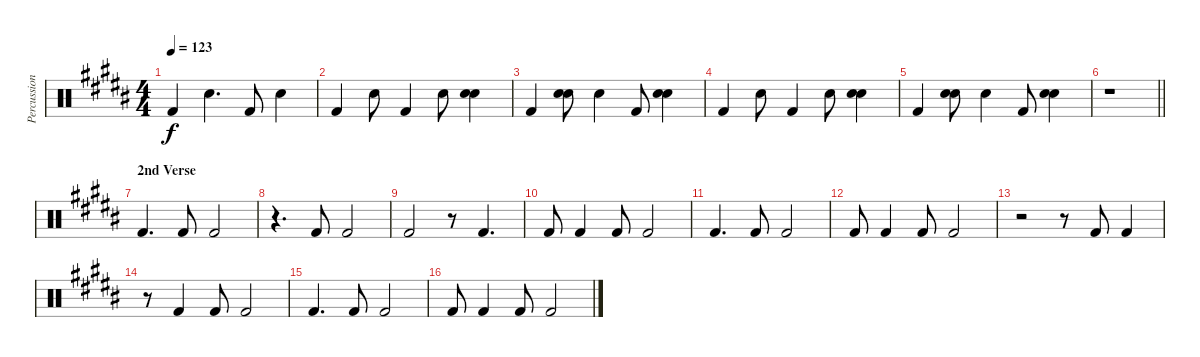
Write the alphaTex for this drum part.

\track ("Percussion" "Percussion") {instrument percussion}
\staff {score}
\articulation defaults
\ts (4 4)
\tempo 123
\clef neutral
\ks g#minor "Kick (hit) 2".4{dy f} "Snare (hit) 2".4{d} "Kick (hit) 2".8 "Snare (hit) 2".4
|
"Kick (hit) 2".4 "Snare (hit) 2".8 "Kick (hit) 2".4 "Hand Clap (hit)".8 ("Hand Clap (hit)" "Snare (hit) 2").4 |
"Kick (hit) 2".4 ("Hand Clap (hit)" "Snare (hit) 2").8 "Hand Clap (hit)".4 "Kick (hit) 2".8 ("Hand Clap (hit)" "Snare (hit) 2").4 |
"Kick (hit) 2".4 "Snare (hit) 2".8 "Kick (hit) 2".4 "Hand Clap (hit)".8 ("Hand Clap (hit)" "Snare (hit) 2").4 |
"Kick (hit) 2".4 ("Hand Clap (hit)" "Snare (hit) 2").8 "Hand Clap (hit)".4 "Kick (hit) 2".8 ("Hand Clap (hit)" "Snare (hit) 2").4 |
\barLineRight lightlight
r.1 |
\section ("" "2nd Verse")
"Kick (hit) 2".4{d} "Kick (hit) 2".8 "Kick (hit) 2".2 |
r.4{d} "Kick (hit) 2".8 "Kick (hit) 2".2 |
"Kick (hit) 2".2 r.8 "Kick (hit) 2".4{d} |
"Kick (hit) 2".8 "Kick (hit) 2".4 "Kick (hit) 2".8 "Kick (hit) 2".2 |
"Kick (hit) 2".4{d} "Kick (hit) 2".8 "Kick (hit) 2".2 |
"Kick (hit) 2".8 "Kick (hit) 2".4 "Kick (hit) 2".8 "Kick (hit) 2".2 |
r.2 r.8 "Kick (hit) 2".8 "Kick (hit) 2".4 |
r.8 "Kick (hit) 2".4 "Kick (hit) 2".8 "Kick (hit) 2".2 |
"Kick (hit) 2".4{d} "Kick (hit) 2".8 "Kick (hit) 2".2 |
"Kick (hit) 2".8 "Kick (hit) 2".4 "Kick (hit) 2".8 "Kick (hit) 2".2
